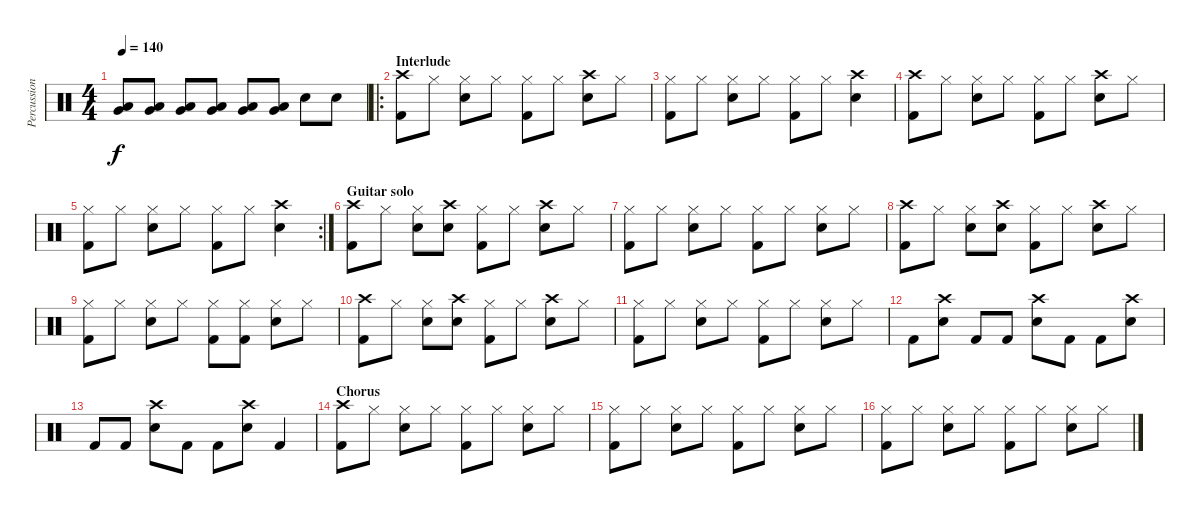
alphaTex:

\track ("Percussion" "Percussion") {instrument percussion}
\staff {score}
\articulation defaults
\ts (4 4)
\tempo 140
\clef neutral
\ks c
("Very Low Tom (hit)" "Low Tom (hit)").8{dy f} ("Very Low Tom (hit)" "Low Tom (hit)").8 ("Very Low Tom (hit)" "Low Tom (hit)").8 ("Very Low Tom (hit)" "Low Tom (hit)").8 ("Very Low Tom (hit)" "Low Tom (hit)").8 ("Very Low Tom (hit)" "Low Tom (hit)").8 "Electric Snare (hit)".8 "Electric Snare (hit)".8 |
\ro
\section ("" "Interlude")
("Crash high (hit)" "Kick (hit) 2").8 "Hi-Hat (closed)".8 ("Hi-Hat (closed)" "Electric Snare (hit)").8 "Hi-Hat (closed)".8 ("Hi-Hat (closed)" "Kick (hit) 2").8 "Hi-Hat (closed)".8 ("Crash high (hit)" "Electric Snare (hit)").8 "Hi-Hat (closed)".8 |
("Hi-Hat (closed)" "Kick (hit) 2").8 "Hi-Hat (closed)".8 ("Hi-Hat (closed)" "Electric Snare (hit)").8 "Hi-Hat (closed)".8 ("Hi-Hat (closed)" "Kick (hit) 2").8 "Hi-Hat (closed)".8 ("Crash high (hit)" "Electric Snare (hit)").4 |
("Crash high (hit)" "Kick (hit) 2").8 "Hi-Hat (closed)".8 ("Hi-Hat (closed)" "Electric Snare (hit)").8 "Hi-Hat (closed)".8 ("Hi-Hat (closed)" "Kick (hit) 2").8 "Hi-Hat (closed)".8 ("Crash high (hit)" "Electric Snare (hit)").8 "Hi-Hat (closed)".8 |
\rc 2
("Hi-Hat (closed)" "Kick (hit) 2").8 "Hi-Hat (closed)".8 ("Hi-Hat (closed)" "Electric Snare (hit)").8 "Hi-Hat (closed)".8 ("Hi-Hat (closed)" "Kick (hit) 2").8 "Hi-Hat (closed)".8 ("Crash high (hit)" "Electric Snare (hit)").4 |
\section ("" "Guitar solo")
("Crash high (hit)" "Kick (hit) 2").8 "Hi-Hat (closed)".8 ("Hi-Hat (closed)" "Electric Snare (hit)").8 ("Crash high (hit)" "Electric Snare (hit)").8 ("Hi-Hat (closed)" "Kick (hit) 2").8 "Hi-Hat (closed)".8 ("Crash high (hit)" "Electric Snare (hit)").8 "Hi-Hat (closed)".8 |
("Hi-Hat (closed)" "Kick (hit) 2").8 "Hi-Hat (closed)".8 ("Hi-Hat (closed)" "Electric Snare (hit)").8 "Hi-Hat (closed)".8 ("Hi-Hat (closed)" "Kick (hit) 2").8 "Hi-Hat (closed)".8 ("Hi-Hat (closed)" "Electric Snare (hit)").8 "Hi-Hat (closed)".8 |
("Crash high (hit)" "Kick (hit) 2").8 "Hi-Hat (closed)".8 ("Hi-Hat (closed)" "Electric Snare (hit)").8 ("Crash high (hit)" "Electric Snare (hit)").8 ("Hi-Hat (closed)" "Kick (hit) 2").8 "Hi-Hat (closed)".8 ("Crash high (hit)" "Electric Snare (hit)").8 "Hi-Hat (closed)".8 |
("Hi-Hat (closed)" "Kick (hit) 2").8 "Hi-Hat (closed)".8 ("Hi-Hat (closed)" "Electric Snare (hit)").8 "Hi-Hat (closed)".8 ("Hi-Hat (closed)" "Kick (hit) 2").8 ("Hi-Hat (closed)" "Kick (hit) 2").8 ("Hi-Hat (closed)" "Electric Snare (hit)").8 "Hi-Hat (closed)".8 |
("Crash high (hit)" "Kick (hit) 2").8 "Hi-Hat (closed)".8 ("Hi-Hat (closed)" "Electric Snare (hit)").8 ("Crash high (hit)" "Electric Snare (hit)").8 ("Hi-Hat (closed)" "Kick (hit) 2").8 "Hi-Hat (closed)".8 ("Crash high (hit)" "Electric Snare (hit)").8 "Hi-Hat (closed)".8 |
("Hi-Hat (closed)" "Kick (hit) 2").8 "Hi-Hat (closed)".8 ("Hi-Hat (closed)" "Electric Snare (hit)").8 "Hi-Hat (closed)".8 ("Hi-Hat (closed)" "Kick (hit) 2").8 "Hi-Hat (closed)".8 ("Hi-Hat (closed)" "Electric Snare (hit)").8 "Hi-Hat (closed)".8 |
"Kick (hit) 2".8 ("Crash high (hit)" "Electric Snare (hit)").8 "Kick (hit) 2".8 "Kick (hit) 2".8 ("Crash high (hit)" "Electric Snare (hit)").8 "Kick (hit) 2".8 "Kick (hit) 2".8 ("Crash high (hit)" "Electric Snare (hit)").8 |
"Kick (hit) 2".8 "Kick (hit) 2".8 ("Crash high (hit)" "Electric Snare (hit)").8 "Kick (hit) 2".8 "Kick (hit) 2".8 ("Crash high (hit)" "Electric Snare (hit)").8 "Kick (hit) 2".4 |
\section ("" "Chorus")
("Crash high (hit)" "Kick (hit) 2").8 "Hi-Hat (closed)".8 ("Hi-Hat (closed)" "Electric Snare (hit)").8 "Hi-Hat (closed)".8 ("Hi-Hat (closed)" "Kick (hit) 2").8 "Hi-Hat (closed)".8 ("Hi-Hat (closed)" "Electric Snare (hit)").8 "Hi-Hat (closed)".8 |
("Hi-Hat (closed)" "Kick (hit) 2").8 "Hi-Hat (closed)".8 ("Hi-Hat (closed)" "Electric Snare (hit)").8 "Hi-Hat (closed)".8 ("Hi-Hat (closed)" "Kick (hit) 2").8 "Hi-Hat (closed)".8 ("Hi-Hat (closed)" "Electric Snare (hit)").8 "Hi-Hat (closed)".8 |
("Hi-Hat (closed)" "Kick (hit) 2").8 "Hi-Hat (closed)".8 ("Hi-Hat (closed)" "Electric Snare (hit)").8 "Hi-Hat (closed)".8 ("Hi-Hat (closed)" "Kick (hit) 2").8 "Hi-Hat (closed)".8 ("Hi-Hat (closed)" "Electric Snare (hit)").8 "Hi-Hat (closed)".8
